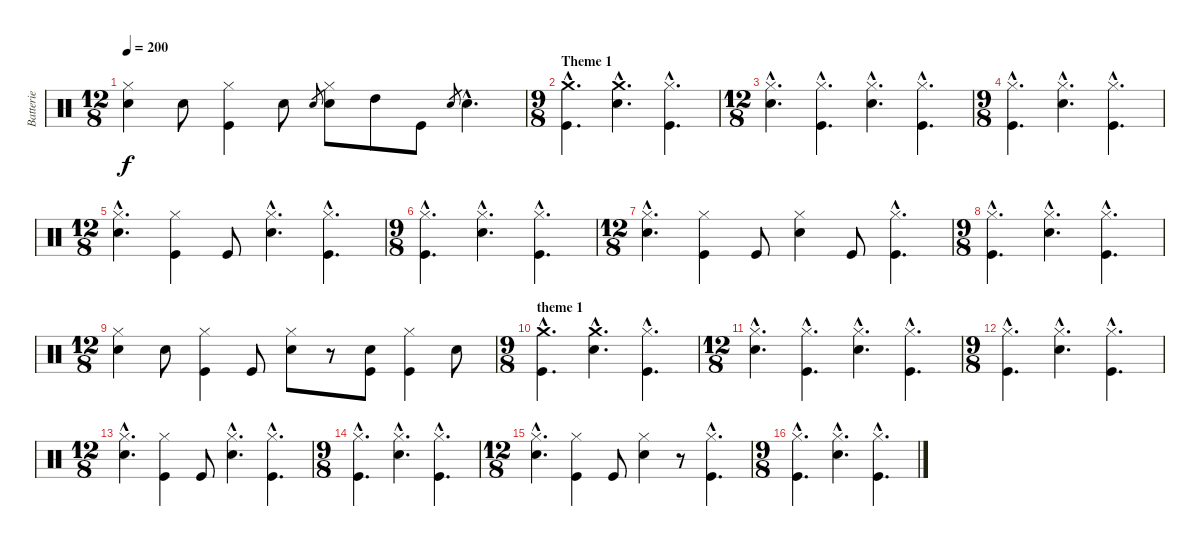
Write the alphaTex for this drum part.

\track ("Batterie" "Batterie") {instrument percussion}
\staff {score}
\articulation defaults
\ts (12 8)
\tempo 200
\clef neutral
\ks c
("Hi-Hat (closed)" "Electric Snare (hit)").4{dy f} "Electric Snare (hit)".8 ("Hi-Hat (closed)" "Kick (hit)").4 "Electric Snare (hit)".8 "Electric Snare (hit)".8{gr} ("Hi-Hat (closed)" "Electric Snare (hit)").8 "High Tom (hit)".8 "Kick (hit)".8 "Electric Snare (hit)".8{gr} "Electric Snare (hit)"{hac}.4{d} |
\ts (9 8)
\section ("" "Theme 1")
("Crash medium (hit)"{hac} "Kick (hit)"{hac}).4{d} ("Crash medium (hit)"{hac} "Electric Snare (hit)"{hac}).4{d} ("Hi-Hat (closed)"{hac} "Kick (hit)"{hac}).4{d} |
\ts (12 8)
("Hi-Hat (closed)"{hac} "Electric Snare (hit)"{hac}).4{d} ("Hi-Hat (closed)"{hac} "Kick (hit)"{hac}).4{d} ("Hi-Hat (closed)"{hac} "Electric Snare (hit)"{hac}).4{d} ("Hi-Hat (closed)"{hac} "Kick (hit)"{hac}).4{d} |
\ts (9 8)
("Hi-Hat (closed)"{hac} "Kick (hit)"{hac}).4{d} ("Hi-Hat (closed)"{hac} "Electric Snare (hit)"{hac}).4{d} ("Hi-Hat (closed)"{hac} "Kick (hit)"{hac}).4{d} |
\ts (12 8)
("Hi-Hat (closed)"{hac} "Electric Snare (hit)"{hac}).4{d} ("Hi-Hat (closed)" "Kick (hit)").4 "Kick (hit)".8 ("Hi-Hat (closed)"{hac} "Electric Snare (hit)"{hac}).4{d} ("Hi-Hat (closed)"{hac} "Kick (hit)"{hac}).4{d} |
\ts (9 8)
("Hi-Hat (closed)"{hac} "Kick (hit)"{hac}).4{d} ("Hi-Hat (closed)"{hac} "Electric Snare (hit)"{hac}).4{d} ("Hi-Hat (closed)"{hac} "Kick (hit)"{hac}).4{d} |
\ts (12 8)
("Hi-Hat (closed)"{hac} "Electric Snare (hit)"{hac}).4{d} ("Hi-Hat (closed)" "Kick (hit)").4 "Kick (hit)".8 ("Hi-Hat (closed)" "Electric Snare (hit)").4 "Kick (hit)".8 ("Hi-Hat (closed)"{hac} "Kick (hit)"{hac}).4{d} |
\ts (9 8)
("Hi-Hat (closed)"{hac} "Kick (hit)"{hac}).4{d} ("Hi-Hat (closed)"{hac} "Electric Snare (hit)"{hac}).4{d} ("Hi-Hat (closed)"{hac} "Kick (hit)"{hac}).4{d} |
\ts (12 8)
("Hi-Hat (closed)" "Electric Snare (hit)").4 "Electric Snare (hit)".8 ("Hi-Hat (closed)" "Kick (hit)").4 "Kick (hit)".8 ("Hi-Hat (closed)" "Electric Snare (hit)").8 r.8 ("Electric Snare (hit)" "Kick (hit)").8 ("Hi-Hat (closed)" "Kick (hit)").4 "Electric Snare (hit)".8 |
\ts (9 8)
\section ("" "theme 1")
("Crash medium (hit)"{hac} "Kick (hit)"{hac}).4{d} ("Crash medium (hit)"{hac} "Electric Snare (hit)"{hac}).4{d} ("Hi-Hat (closed)"{hac} "Kick (hit)"{hac}).4{d} |
\ts (12 8)
("Hi-Hat (closed)"{hac} "Electric Snare (hit)"{hac}).4{d} ("Hi-Hat (closed)"{hac} "Kick (hit)"{hac}).4{d} ("Hi-Hat (closed)"{hac} "Electric Snare (hit)"{hac}).4{d} ("Hi-Hat (closed)"{hac} "Kick (hit)"{hac}).4{d} |
\ts (9 8)
("Hi-Hat (closed)"{hac} "Kick (hit)"{hac}).4{d} ("Hi-Hat (closed)"{hac} "Electric Snare (hit)"{hac}).4{d} ("Hi-Hat (closed)"{hac} "Kick (hit)"{hac}).4{d} |
\ts (12 8)
("Hi-Hat (closed)"{hac} "Electric Snare (hit)"{hac}).4{d} ("Hi-Hat (closed)" "Kick (hit)").4 "Kick (hit)".8 ("Hi-Hat (closed)"{hac} "Electric Snare (hit)"{hac}).4{d} ("Hi-Hat (closed)"{hac} "Kick (hit)"{hac}).4{d} |
\ts (9 8)
("Hi-Hat (closed)"{hac} "Kick (hit)"{hac}).4{d} ("Hi-Hat (closed)"{hac} "Electric Snare (hit)"{hac}).4{d} ("Hi-Hat (closed)"{hac} "Kick (hit)"{hac}).4{d} |
\ts (12 8)
("Hi-Hat (closed)"{hac} "Electric Snare (hit)"{hac}).4{d} ("Hi-Hat (closed)" "Kick (hit)").4 "Kick (hit)".8 ("Hi-Hat (closed)" "Electric Snare (hit)").4 r.8 ("Hi-Hat (closed)"{hac} "Kick (hit)"{hac}).4{d} |
\ts (9 8)
("Hi-Hat (closed)"{hac} "Kick (hit)"{hac}).4{d} ("Hi-Hat (closed)"{hac} "Electric Snare (hit)"{hac}).4{d} ("Hi-Hat (closed)"{hac} "Kick (hit)"{hac}).4{d}
